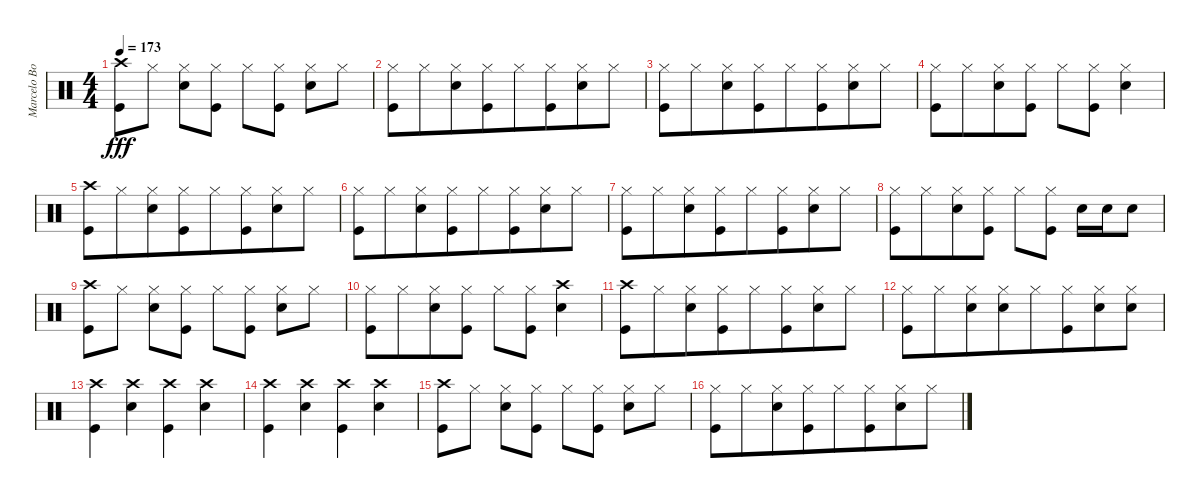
\track ("Marcelo Bonfá (Bateria)" "Marcelo Bo") {instrument percussion}
\staff {score}
\articulation defaults
\ts (4 4)
\tempo 173
\clef neutral
\ks c
("Kick (hit)" "Crash high (hit)").8{dy fff} "Hi-Hat (closed)".8 ("Snare (hit) 2" "Hi-Hat (closed)").8 ("Kick (hit)" "Hi-Hat (closed)").8 "Hi-Hat (closed)".8 ("Hi-Hat (closed)" "Kick (hit)").8 ("Snare (hit) 2" "Hi-Hat (closed)").8 "Hi-Hat (closed)".8 |
("Kick (hit)" "Hi-Hat (closed)").8 "Hi-Hat (closed)".8{beam merge} ("Snare (hit) 2" "Hi-Hat (closed)").8 ("Kick (hit)" "Hi-Hat (closed)").8{beam merge} "Hi-Hat (closed)".8 ("Hi-Hat (closed)" "Kick (hit)").8{beam merge} ("Snare (hit) 2" "Hi-Hat (closed)").8 "Hi-Hat (closed)".8 |
("Kick (hit)" "Hi-Hat (closed)").8 "Hi-Hat (closed)".8{beam merge} ("Snare (hit) 2" "Hi-Hat (closed)").8 ("Kick (hit)" "Hi-Hat (closed)").8{beam merge} "Hi-Hat (closed)".8 ("Hi-Hat (closed)" "Kick (hit)").8{beam merge} ("Snare (hit) 2" "Hi-Hat (closed)").8 "Hi-Hat (closed)".8 |
("Kick (hit)" "Hi-Hat (closed)").8 "Hi-Hat (closed)".8{beam merge} ("Snare (hit) 2" "Hi-Hat (closed)").8 ("Kick (hit)" "Hi-Hat (closed)").8 "Hi-Hat (closed)".8 ("Hi-Hat (closed)" "Kick (hit)").8 ("Snare (hit) 2" "Hi-Hat (closed)").4 |
("Kick (hit)" "Crash high (hit)").8{beam merge} "Hi-Hat (closed)".8{beam merge} ("Snare (hit) 2" "Hi-Hat (closed)").8{beam merge} ("Kick (hit)" "Hi-Hat (closed)").8{beam merge} "Hi-Hat (closed)".8{beam merge} ("Hi-Hat (closed)" "Kick (hit)").8{beam merge} ("Snare (hit) 2" "Hi-Hat (closed)").8{beam merge} "Hi-Hat (closed)".8 |
("Kick (hit)" "Hi-Hat (closed)").8 "Hi-Hat (closed)".8{beam merge} ("Snare (hit) 2" "Hi-Hat (closed)").8 ("Kick (hit)" "Hi-Hat (closed)").8{beam merge} "Hi-Hat (closed)".8 ("Hi-Hat (closed)" "Kick (hit)").8{beam merge} ("Snare (hit) 2" "Hi-Hat (closed)").8 "Hi-Hat (closed)".8 |
("Kick (hit)" "Hi-Hat (closed)").8 "Hi-Hat (closed)".8{beam merge} ("Snare (hit) 2" "Hi-Hat (closed)").8 ("Kick (hit)" "Hi-Hat (closed)").8{beam merge} "Hi-Hat (closed)".8 ("Hi-Hat (closed)" "Kick (hit)").8{beam merge} ("Snare (hit) 2" "Hi-Hat (closed)").8 "Hi-Hat (closed)".8 |
("Kick (hit)" "Hi-Hat (closed)").8 "Hi-Hat (closed)".8{beam merge} ("Snare (hit) 2" "Hi-Hat (closed)").8 ("Kick (hit)" "Hi-Hat (closed)").8 "Hi-Hat (closed)".8 ("Hi-Hat (closed)" "Kick (hit)").8 "Snare (hit) 2".16 "Snare (hit) 2".16 "Snare (hit) 2".8 |
("Kick (hit)" "Crash high (hit)").8 "Hi-Hat (closed)".8 ("Snare (hit) 2" "Hi-Hat (closed)").8 ("Kick (hit)" "Hi-Hat (closed)").8 "Hi-Hat (closed)".8 ("Hi-Hat (closed)" "Kick (hit)").8 ("Snare (hit) 2" "Hi-Hat (closed)").8 "Hi-Hat (closed)".8 |
("Kick (hit)" "Hi-Hat (closed)").8 "Hi-Hat (closed)".8{beam merge} ("Snare (hit) 2" "Hi-Hat (closed)").8 ("Kick (hit)" "Hi-Hat (closed)").8 "Hi-Hat (closed)".8 ("Hi-Hat (closed)" "Kick (hit)").8 ("Snare (hit) 2" "Crash high (hit)").4 |
("Kick (hit)" "Crash high (hit)").8{beam merge} "Hi-Hat (closed)".8{beam merge} ("Snare (hit) 2" "Hi-Hat (closed)").8{beam merge} ("Kick (hit)" "Hi-Hat (closed)").8{beam merge} "Hi-Hat (closed)".8{beam merge} ("Hi-Hat (closed)" "Kick (hit)").8{beam merge} ("Snare (hit) 2" "Hi-Hat (closed)").8{beam merge} "Hi-Hat (closed)".8 |
("Kick (hit)" "Hi-Hat (closed)").8 "Hi-Hat (closed)".8{beam merge} ("Snare (hit) 2" "Hi-Hat (closed)").8 ("Hi-Hat (closed)" "Snare (hit) 2").8{beam merge} "Hi-Hat (closed)".8 ("Hi-Hat (closed)" "Kick (hit)").8{beam merge} ("Snare (hit) 2" "Hi-Hat (closed)").8 ("Hi-Hat (closed)" "Snare (hit) 2").8 |
("Kick (hit)" "Crash high (hit)").4 ("Crash high (hit)" "Snare (hit) 2").4 ("Kick (hit)" "Crash high (hit)").4 ("Snare (hit) 2" "Crash high (hit)").4 |
("Kick (hit)" "Crash high (hit)").4 ("Crash high (hit)" "Snare (hit) 2").4 ("Kick (hit)" "Crash high (hit)").4 ("Snare (hit) 2" "Crash high (hit)").4 |
("Kick (hit)" "Crash high (hit)").8 "Hi-Hat (closed)".8 ("Snare (hit) 2" "Hi-Hat (closed)").8 ("Kick (hit)" "Hi-Hat (closed)").8 "Hi-Hat (closed)".8 ("Hi-Hat (closed)" "Kick (hit)").8 ("Snare (hit) 2" "Hi-Hat (closed)").8 "Hi-Hat (closed)".8 |
("Kick (hit)" "Hi-Hat (closed)").8 "Hi-Hat (closed)".8{beam merge} ("Snare (hit) 2" "Hi-Hat (closed)").8 ("Kick (hit)" "Hi-Hat (closed)").8{beam merge} "Hi-Hat (closed)".8 ("Hi-Hat (closed)" "Kick (hit)").8{beam merge} ("Snare (hit) 2" "Hi-Hat (closed)").8 "Hi-Hat (closed)".8
